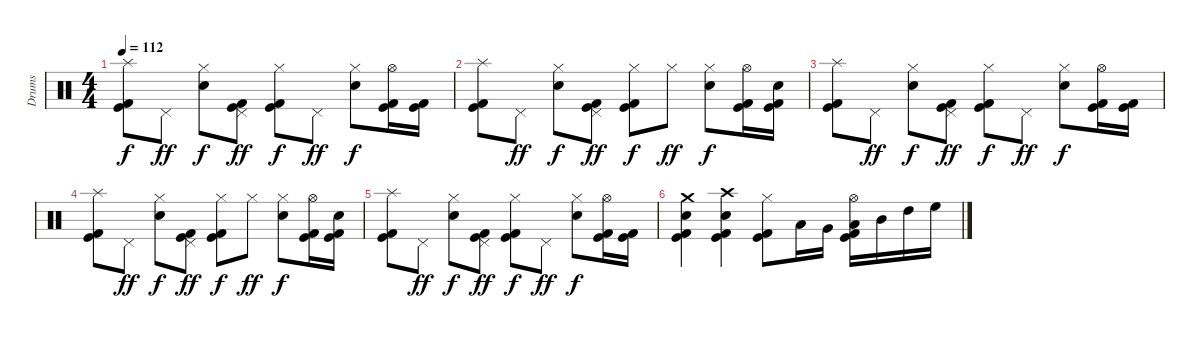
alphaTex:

\track ("Drums" "Drums") {instrument percussion}
\staff {score}
\articulation defaults
\ts (4 4)
\tempo 112
\clef neutral
\ks c
("Splash (hit)" "Kick (hit) 2" "Kick (hit)").8{dy f} "Pedal Hi-Hat (hit)".8{dy ff} ("Hi-Hat (closed)" "Electric Snare (hit)").8{dy f} ("Pedal Hi-Hat (hit)" "Kick (hit)" "Kick (hit) 2").8{dy ff} ("Hi-Hat (closed)" "Kick (hit)" "Kick (hit) 2").8{dy f} "Pedal Hi-Hat (hit)".8{dy ff} ("Hi-Hat (closed)" "Electric Snare (hit)").8{dy f} ("Hi-Hat (open)" "Kick (hit) 2" "Kick (hit)").16 ("Kick (hit) 2" "Kick (hit)").16 |
("Splash (hit)" "Kick (hit) 2" "Kick (hit)").8 "Pedal Hi-Hat (hit)".8{dy ff} ("Hi-Hat (closed)" "Electric Snare (hit)").8{dy f} ("Pedal Hi-Hat (hit)" "Kick (hit)" "Kick (hit) 2").8{dy ff} ("Hi-Hat (closed)" "Kick (hit)" "Kick (hit) 2").8{dy f} "Hi-Hat (closed)".8{dy ff} ("Hi-Hat (closed)" "Electric Snare (hit)").8{dy f} ("Hi-Hat (open)" "Kick (hit) 2" "Kick (hit)").16 ("Electric Snare (hit)" "Kick (hit) 2" "Kick (hit)").16 |
("Splash (hit)" "Kick (hit) 2" "Kick (hit)").8 "Pedal Hi-Hat (hit)".8{dy ff} ("Hi-Hat (closed)" "Electric Snare (hit)").8{dy f} ("Pedal Hi-Hat (hit)" "Kick (hit)" "Kick (hit) 2").8{dy ff} ("Hi-Hat (closed)" "Kick (hit)" "Kick (hit) 2").8{dy f} "Pedal Hi-Hat (hit)".8{dy ff} ("Hi-Hat (closed)" "Electric Snare (hit)").8{dy f} ("Hi-Hat (open)" "Kick (hit) 2" "Kick (hit)").16 ("Kick (hit) 2" "Kick (hit)").16 |
("Splash (hit)" "Kick (hit) 2" "Kick (hit)").8 "Pedal Hi-Hat (hit)".8{dy ff} ("Hi-Hat (closed)" "Electric Snare (hit)").8{dy f} ("Pedal Hi-Hat (hit)" "Kick (hit)" "Kick (hit) 2").8{dy ff} ("Hi-Hat (closed)" "Kick (hit)" "Kick (hit) 2").8{dy f} "Hi-Hat (closed)".8{dy ff} ("Hi-Hat (closed)" "Electric Snare (hit)").8{dy f} ("Hi-Hat (open)" "Kick (hit) 2" "Kick (hit)").16 ("Electric Snare (hit)" "Kick (hit) 2" "Kick (hit)").16 |
("Splash (hit)" "Kick (hit) 2" "Kick (hit)").8{volume 0} "Pedal Hi-Hat (hit)".8{dy ff} ("Hi-Hat (closed)" "Electric Snare (hit)").8{dy f} ("Pedal Hi-Hat (hit)" "Kick (hit)" "Kick (hit) 2").8{dy ff} ("Hi-Hat (closed)" "Kick (hit)" "Kick (hit) 2").8{dy f} "Pedal Hi-Hat (hit)".8{dy ff} ("Hi-Hat (closed)" "Electric Snare (hit)").8{dy f} ("Hi-Hat (open)" "Kick (hit) 2" "Kick (hit)").16 ("Kick (hit) 2" "Kick (hit)").16 |
("Crash medium (hit)" "Electric Snare (hit)" "Kick (hit) 2" "Kick (hit)").4 ("Crash high (hit)" "Electric Snare (hit)" "Kick (hit) 2" "Kick (hit)").4 ("Hi-Hat (closed)" "Kick (hit) 2" "Kick (hit)").8 "Low Tom (hit)".16 "Very Low Tom (hit)".16 ("Hi-Hat (open)" "Low Floor Tom (hit)" "Kick (hit) 2" "Kick (hit)").16 "Mid Tom (hit)".16 "High Tom (hit)".16 "High Floor Tom (hit)".16
